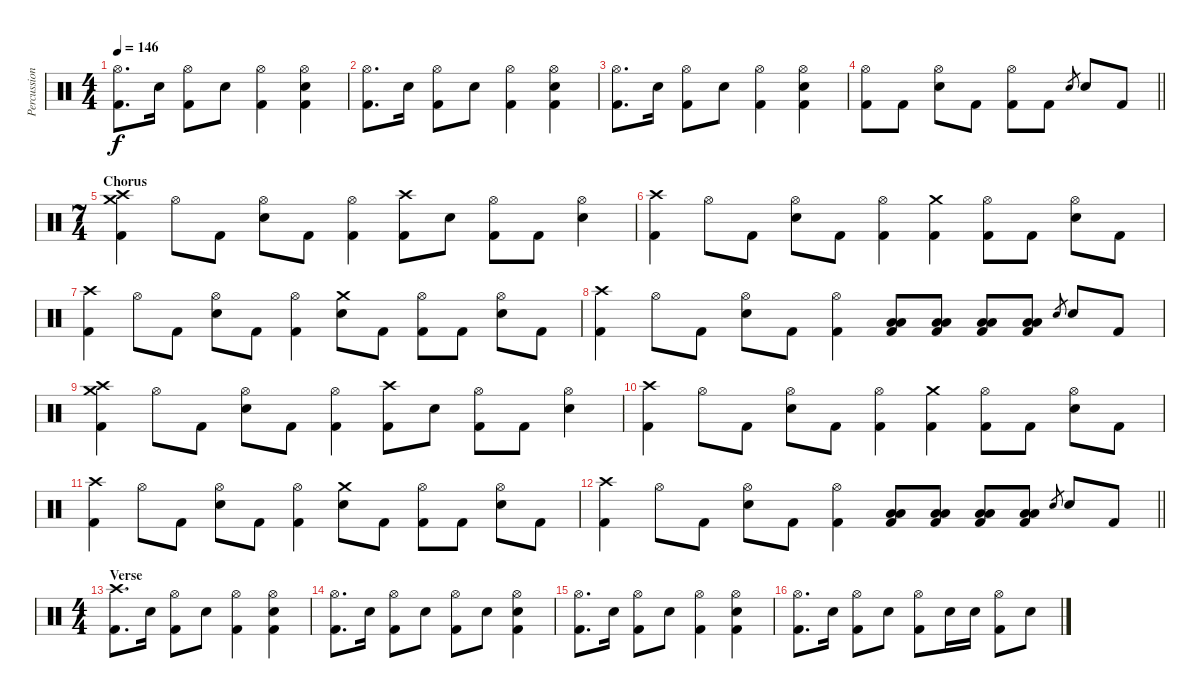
\track ("Percussion" "Percussion") {instrument percussion}
\staff {score}
\articulation defaults
\ts (4 4)
\tempo 146
\clef neutral
\ks c
("Hi-Hat (open)" "Kick (hit) 2").8{d dy f} "Electric Snare (hit)".16 ("Hi-Hat (open)" "Kick (hit) 2").8 "Electric Snare (hit)".8 ("Hi-Hat (open)" "Kick (hit) 2").4 ("Hi-Hat (open)" "Electric Snare (hit)" "Kick (hit) 2").4 |
("Hi-Hat (open)" "Kick (hit) 2").8{d} "Electric Snare (hit)".16 ("Hi-Hat (open)" "Kick (hit) 2").8 "Electric Snare (hit)".8 ("Hi-Hat (open)" "Kick (hit) 2").4 ("Hi-Hat (open)" "Electric Snare (hit)" "Kick (hit) 2").4 |
("Hi-Hat (open)" "Kick (hit) 2").8{d} "Electric Snare (hit)".16 ("Hi-Hat (open)" "Kick (hit) 2").8 "Electric Snare (hit)".8 ("Hi-Hat (open)" "Kick (hit) 2").4 ("Hi-Hat (open)" "Electric Snare (hit)" "Kick (hit) 2").4 |
\barLineRight lightlight
("Hi-Hat (open)" "Kick (hit) 2").8 "Kick (hit) 2".8 ("Hi-Hat (open)" "Electric Snare (hit)").8 "Kick (hit) 2".8 ("Hi-Hat (open)" "Kick (hit) 2").8 "Kick (hit) 2".8 "Electric Snare (hit)".8{gr} "Electric Snare (hit)".8 "Kick (hit) 2".8 |
\ts (7 4)
\section ("" "Chorus")
("Crash high (hit)" "Crash medium (hit)" "Kick (hit) 2").4 "Hi-Hat (open)".8 "Kick (hit) 2".8 ("Hi-Hat (open)" "Electric Snare (hit)").8 "Kick (hit) 2".8 ("Hi-Hat (open)" "Kick (hit) 2").4 ("Crash high (hit)" "Kick (hit) 2").8 "Electric Snare (hit)".8 ("Hi-Hat (open)" "Kick (hit) 2").8 "Kick (hit) 2".8 ("Hi-Hat (open)" "Electric Snare (hit)").4 |
("Crash high (hit)" "Kick (hit) 2").4 "Hi-Hat (open)".8 "Kick (hit) 2".8 ("Hi-Hat (open)" "Electric Snare (hit)").8 "Kick (hit) 2".8 ("Hi-Hat (open)" "Kick (hit) 2").4 ("Crash medium (hit)" "Kick (hit) 2").4 ("Hi-Hat (open)" "Kick (hit) 2").8 "Kick (hit) 2".8 ("Hi-Hat (open)" "Electric Snare (hit)").8 "Kick (hit) 2".8 |
("Crash high (hit)" "Kick (hit) 2").4 "Hi-Hat (open)".8 "Kick (hit) 2".8 ("Hi-Hat (open)" "Electric Snare (hit)").8 "Kick (hit) 2".8 ("Hi-Hat (open)" "Kick (hit) 2").4 ("Crash medium (hit)" "Electric Snare (hit)").8 "Kick (hit) 2".8 ("Hi-Hat (open)" "Kick (hit) 2").8 "Kick (hit) 2".8 ("Hi-Hat (open)" "Electric Snare (hit)").8 "Kick (hit) 2".8 |
("Crash high (hit)" "Kick (hit) 2").4 "Hi-Hat (open)".8 "Kick (hit) 2".8 ("Hi-Hat (open)" "Electric Snare (hit)").8 "Kick (hit) 2".8 ("Hi-Hat (open)" "Kick (hit) 2").4 ("Low Tom (hit)" "Low Floor Tom (hit)" "Kick (hit) 2").8 ("Low Tom (hit)" "Low Floor Tom (hit)" "Kick (hit) 2").8 ("Low Tom (hit)" "Low Floor Tom (hit)" "Kick (hit) 2").8 ("Low Tom (hit)" "Low Floor Tom (hit)" "Kick (hit) 2").8 "Electric Snare (hit)".8{gr} "Electric Snare (hit)".8 "Kick (hit) 2".8 |
("Crash high (hit)" "Crash medium (hit)" "Kick (hit) 2").4 "Hi-Hat (open)".8 "Kick (hit) 2".8 ("Hi-Hat (open)" "Electric Snare (hit)").8 "Kick (hit) 2".8 ("Hi-Hat (open)" "Kick (hit) 2").4 ("Crash high (hit)" "Kick (hit) 2").8 "Electric Snare (hit)".8 ("Hi-Hat (open)" "Kick (hit) 2").8 "Kick (hit) 2".8 ("Hi-Hat (open)" "Electric Snare (hit)").4 |
("Crash high (hit)" "Kick (hit) 2").4 "Hi-Hat (open)".8 "Kick (hit) 2".8 ("Hi-Hat (open)" "Electric Snare (hit)").8 "Kick (hit) 2".8 ("Hi-Hat (open)" "Kick (hit) 2").4 ("Crash medium (hit)" "Kick (hit) 2").4 ("Hi-Hat (open)" "Kick (hit) 2").8 "Kick (hit) 2".8 ("Hi-Hat (open)" "Electric Snare (hit)").8 "Kick (hit) 2".8 |
("Crash high (hit)" "Kick (hit) 2").4 "Hi-Hat (open)".8 "Kick (hit) 2".8 ("Hi-Hat (open)" "Electric Snare (hit)").8 "Kick (hit) 2".8 ("Hi-Hat (open)" "Kick (hit) 2").4 ("Crash medium (hit)" "Electric Snare (hit)").8 "Kick (hit) 2".8 ("Hi-Hat (open)" "Kick (hit) 2").8 "Kick (hit) 2".8 ("Hi-Hat (open)" "Electric Snare (hit)").8 "Kick (hit) 2".8 |
\barLineRight lightlight
("Crash high (hit)" "Kick (hit) 2").4 "Hi-Hat (open)".8 "Kick (hit) 2".8 ("Hi-Hat (open)" "Electric Snare (hit)").8 "Kick (hit) 2".8 ("Hi-Hat (open)" "Kick (hit) 2").4 ("Low Tom (hit)" "Low Floor Tom (hit)" "Kick (hit) 2").8 ("Low Tom (hit)" "Low Floor Tom (hit)" "Kick (hit) 2").8 ("Low Tom (hit)" "Low Floor Tom (hit)" "Kick (hit) 2").8 ("Low Tom (hit)" "Low Floor Tom (hit)" "Kick (hit) 2").8 "Electric Snare (hit)".8{gr} "Electric Snare (hit)".8 "Kick (hit) 2".8 |
\ts (4 4)
\section ("" "Verse")
("Crash high (hit)" "Kick (hit) 2").8{d} "Electric Snare (hit)".16 ("Hi-Hat (open)" "Kick (hit) 2").8 "Electric Snare (hit)".8 ("Hi-Hat (open)" "Kick (hit) 2").4 ("Hi-Hat (open)" "Electric Snare (hit)" "Kick (hit) 2").4 |
("Hi-Hat (open)" "Kick (hit) 2").8{d} "Electric Snare (hit)".16 ("Hi-Hat (open)" "Kick (hit) 2").8 "Electric Snare (hit)".8 ("Hi-Hat (open)" "Kick (hit) 2").8 "Electric Snare (hit)".8 ("Hi-Hat (open)" "Electric Snare (hit)" "Kick (hit) 2").4 |
("Hi-Hat (open)" "Kick (hit) 2").8{d} "Electric Snare (hit)".16 ("Hi-Hat (open)" "Kick (hit) 2").8 "Electric Snare (hit)".8 ("Hi-Hat (open)" "Kick (hit) 2").4 ("Hi-Hat (open)" "Electric Snare (hit)" "Kick (hit) 2").4 |
("Hi-Hat (open)" "Kick (hit) 2").8{d} "Electric Snare (hit)".16 ("Hi-Hat (open)" "Kick (hit) 2").8 "Electric Snare (hit)".8 ("Hi-Hat (open)" "Kick (hit) 2").8 "Electric Snare (hit)".16 "Electric Snare (hit)".16 ("Hi-Hat (open)" "Kick (hit) 2").8 "Electric Snare (hit)".8
